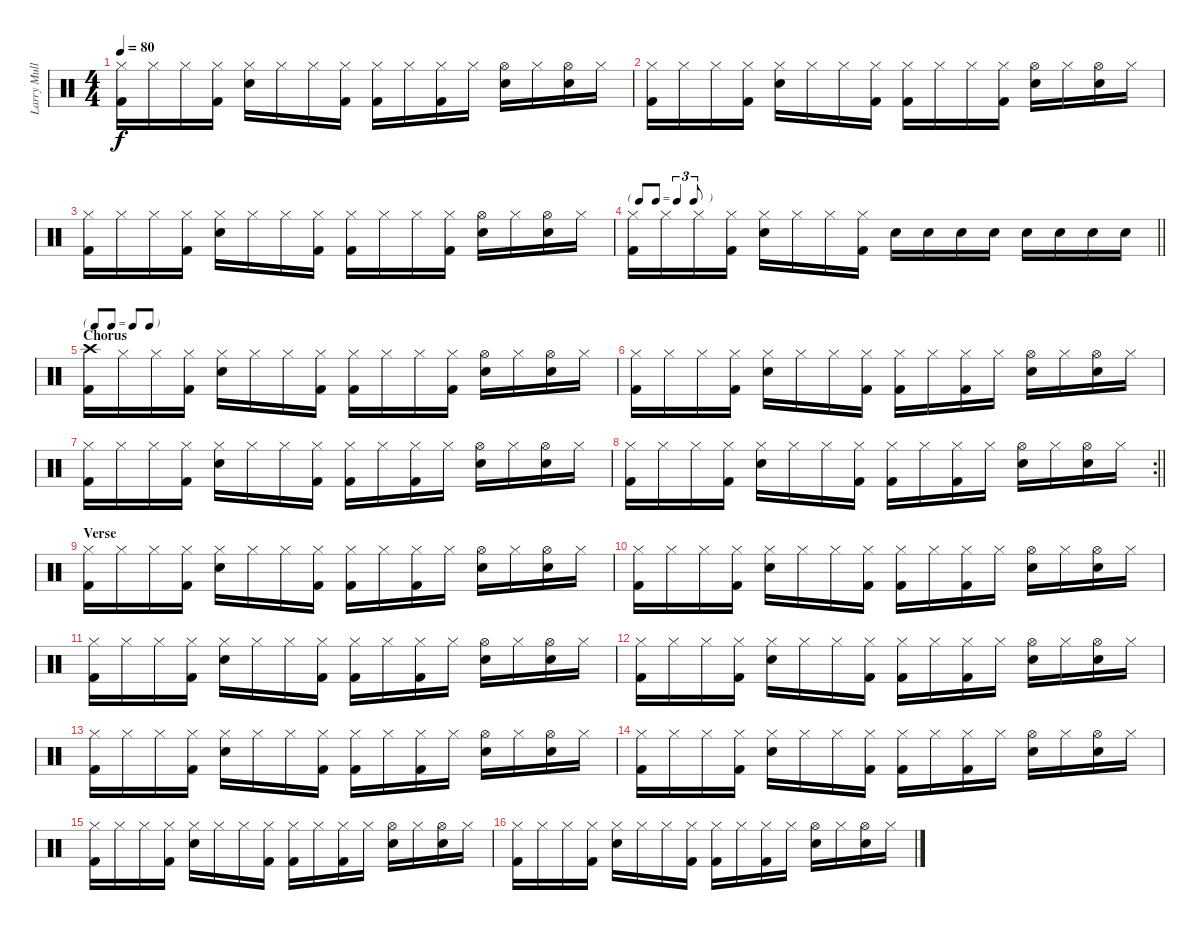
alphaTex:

\track ("Larry Mullen Jr" "Larry Mull") {instrument percussion}
\staff {score}
\articulation defaults
\ts (4 4)
\tempo 80
\clef neutral
\ks c
("Hi-Hat (closed)" "Kick (hit) 2").16{dy f} "Hi-Hat (closed)".16 "Hi-Hat (closed)".16 ("Hi-Hat (closed)" "Kick (hit) 2").16 ("Hi-Hat (closed)" "Snare (hit) 2").16 "Hi-Hat (closed)".16 "Hi-Hat (closed)".16 ("Hi-Hat (closed)" "Kick (hit) 2").16 ("Hi-Hat (closed)" "Kick (hit) 2").16 "Hi-Hat (closed)".16 ("Hi-Hat (closed)" "Kick (hit) 2").16 "Hi-Hat (closed)".16 ("Hi-Hat (open)" "Snare (hit) 2").16 "Hi-Hat (closed)".16 ("Hi-Hat (open)" "Snare (hit) 2").16 "Hi-Hat (closed)".16 |
("Hi-Hat (closed)" "Kick (hit) 2").16 "Hi-Hat (closed)".16 "Hi-Hat (closed)".16 ("Hi-Hat (closed)" "Kick (hit) 2").16 ("Hi-Hat (closed)" "Snare (hit) 2").16 "Hi-Hat (closed)".16 "Hi-Hat (closed)".16 ("Hi-Hat (closed)" "Kick (hit) 2").16 ("Hi-Hat (closed)" "Kick (hit) 2").16 "Hi-Hat (closed)".16 "Hi-Hat (closed)".16 ("Hi-Hat (closed)" "Kick (hit) 2").16 ("Hi-Hat (open)" "Snare (hit) 2").16 "Hi-Hat (closed)".16 ("Hi-Hat (open)" "Snare (hit) 2").16 "Hi-Hat (closed)".16 |
("Hi-Hat (closed)" "Kick (hit) 2").16 "Hi-Hat (closed)".16 "Hi-Hat (closed)".16 ("Hi-Hat (closed)" "Kick (hit) 2").16 ("Hi-Hat (closed)" "Snare (hit) 2").16 "Hi-Hat (closed)".16 "Hi-Hat (closed)".16 ("Hi-Hat (closed)" "Kick (hit) 2").16 ("Hi-Hat (closed)" "Kick (hit) 2").16 "Hi-Hat (closed)".16 "Hi-Hat (closed)".16 ("Hi-Hat (closed)" "Kick (hit) 2").16 ("Hi-Hat (open)" "Snare (hit) 2").16 "Hi-Hat (closed)".16 ("Hi-Hat (open)" "Snare (hit) 2").16 "Hi-Hat (closed)".16 |
\tf triplet8th
\barLineRight lightlight
("Hi-Hat (closed)" "Kick (hit) 2").16 "Hi-Hat (closed)".16 "Hi-Hat (closed)".16 ("Hi-Hat (closed)" "Kick (hit) 2").16 ("Hi-Hat (closed)" "Snare (hit) 2").16 "Hi-Hat (closed)".16 "Hi-Hat (closed)".16 ("Hi-Hat (closed)" "Kick (hit) 2").16 "Snare (hit) 2".16 "Snare (hit) 2".16 "Snare (hit) 2".16 "Snare (hit) 2".16 "Snare (hit) 2".16 "Snare (hit) 2".16 "Snare (hit) 2".16 "Snare (hit) 2".16 |
\tf none
\section ("" "Chorus")
("Crash high (hit)" "Kick (hit) 2").16 "Hi-Hat (closed)".16 "Hi-Hat (closed)".16 ("Hi-Hat (closed)" "Kick (hit) 2").16 ("Hi-Hat (closed)" "Snare (hit) 2").16 "Hi-Hat (closed)".16 "Hi-Hat (closed)".16 ("Hi-Hat (closed)" "Kick (hit) 2").16 ("Hi-Hat (closed)" "Kick (hit) 2").16 "Hi-Hat (closed)".16 "Hi-Hat (closed)".16 ("Hi-Hat (closed)" "Kick (hit) 2").16 ("Hi-Hat (open)" "Snare (hit) 2").16 "Hi-Hat (closed)".16 ("Hi-Hat (open)" "Snare (hit) 2").16 "Hi-Hat (closed)".16 |
("Hi-Hat (closed)" "Kick (hit) 2").16 "Hi-Hat (closed)".16 "Hi-Hat (closed)".16 ("Hi-Hat (closed)" "Kick (hit) 2").16 ("Hi-Hat (closed)" "Snare (hit) 2").16 "Hi-Hat (closed)".16 "Hi-Hat (closed)".16 ("Hi-Hat (closed)" "Kick (hit) 2").16 ("Hi-Hat (closed)" "Kick (hit) 2").16 "Hi-Hat (closed)".16 ("Hi-Hat (closed)" "Kick (hit) 2").16 "Hi-Hat (closed)".16 ("Hi-Hat (open)" "Snare (hit) 2").16 "Hi-Hat (closed)".16 ("Hi-Hat (open)" "Snare (hit) 2").16 "Hi-Hat (closed)".16 |
("Hi-Hat (closed)" "Kick (hit) 2").16 "Hi-Hat (closed)".16 "Hi-Hat (closed)".16 ("Hi-Hat (closed)" "Kick (hit) 2").16 ("Hi-Hat (closed)" "Snare (hit) 2").16 "Hi-Hat (closed)".16 "Hi-Hat (closed)".16 ("Hi-Hat (closed)" "Kick (hit) 2").16 ("Hi-Hat (closed)" "Kick (hit) 2").16 "Hi-Hat (closed)".16 ("Hi-Hat (closed)" "Kick (hit) 2").16 "Hi-Hat (closed)".16 ("Hi-Hat (open)" "Snare (hit) 2").16 "Hi-Hat (closed)".16 ("Hi-Hat (open)" "Snare (hit) 2").16 "Hi-Hat (closed)".16 |
\rc 2
\barLineRight lightlight
("Hi-Hat (closed)" "Kick (hit) 2").16 "Hi-Hat (closed)".16 "Hi-Hat (closed)".16 ("Hi-Hat (closed)" "Kick (hit) 2").16 ("Hi-Hat (closed)" "Snare (hit) 2").16 "Hi-Hat (closed)".16 "Hi-Hat (closed)".16 ("Hi-Hat (closed)" "Kick (hit) 2").16 ("Hi-Hat (closed)" "Kick (hit) 2").16 "Hi-Hat (closed)".16 ("Hi-Hat (closed)" "Kick (hit) 2").16 "Hi-Hat (closed)".16 ("Hi-Hat (open)" "Snare (hit) 2").16 "Hi-Hat (closed)".16 ("Hi-Hat (open)" "Snare (hit) 2").16 "Hi-Hat (closed)".16 |
\section ("" "Verse")
("Hi-Hat (closed)" "Kick (hit) 2").16 "Hi-Hat (closed)".16 "Hi-Hat (closed)".16 ("Hi-Hat (closed)" "Kick (hit) 2").16 ("Hi-Hat (closed)" "Snare (hit) 2").16 "Hi-Hat (closed)".16 "Hi-Hat (closed)".16 ("Hi-Hat (closed)" "Kick (hit) 2").16 ("Hi-Hat (closed)" "Kick (hit) 2").16 "Hi-Hat (closed)".16 ("Hi-Hat (closed)" "Kick (hit) 2").16 "Hi-Hat (closed)".16 ("Hi-Hat (open)" "Snare (hit) 2").16 "Hi-Hat (closed)".16 ("Hi-Hat (open)" "Snare (hit) 2").16 "Hi-Hat (closed)".16 |
("Hi-Hat (closed)" "Kick (hit) 2").16 "Hi-Hat (closed)".16 "Hi-Hat (closed)".16 ("Hi-Hat (closed)" "Kick (hit) 2").16 ("Hi-Hat (closed)" "Snare (hit) 2").16 "Hi-Hat (closed)".16 "Hi-Hat (closed)".16 ("Hi-Hat (closed)" "Kick (hit) 2").16 ("Hi-Hat (closed)" "Kick (hit) 2").16 "Hi-Hat (closed)".16 ("Hi-Hat (closed)" "Kick (hit) 2").16 "Hi-Hat (closed)".16 ("Hi-Hat (open)" "Snare (hit) 2").16 "Hi-Hat (closed)".16 ("Hi-Hat (open)" "Snare (hit) 2").16 "Hi-Hat (closed)".16 |
("Hi-Hat (closed)" "Kick (hit) 2").16 "Hi-Hat (closed)".16 "Hi-Hat (closed)".16 ("Hi-Hat (closed)" "Kick (hit) 2").16 ("Hi-Hat (closed)" "Snare (hit) 2").16 "Hi-Hat (closed)".16 "Hi-Hat (closed)".16 ("Hi-Hat (closed)" "Kick (hit) 2").16 ("Hi-Hat (closed)" "Kick (hit) 2").16 "Hi-Hat (closed)".16 ("Hi-Hat (closed)" "Kick (hit) 2").16 "Hi-Hat (closed)".16 ("Hi-Hat (open)" "Snare (hit) 2").16 "Hi-Hat (closed)".16 ("Hi-Hat (open)" "Snare (hit) 2").16 "Hi-Hat (closed)".16 |
("Hi-Hat (closed)" "Kick (hit) 2").16 "Hi-Hat (closed)".16 "Hi-Hat (closed)".16 ("Hi-Hat (closed)" "Kick (hit) 2").16 ("Hi-Hat (closed)" "Snare (hit) 2").16 "Hi-Hat (closed)".16 "Hi-Hat (closed)".16 ("Hi-Hat (closed)" "Kick (hit) 2").16 ("Hi-Hat (closed)" "Kick (hit) 2").16 "Hi-Hat (closed)".16 ("Hi-Hat (closed)" "Kick (hit) 2").16 "Hi-Hat (closed)".16 ("Hi-Hat (open)" "Snare (hit) 2").16 "Hi-Hat (closed)".16 ("Hi-Hat (open)" "Snare (hit) 2").16 "Hi-Hat (closed)".16 |
("Hi-Hat (closed)" "Kick (hit) 2").16 "Hi-Hat (closed)".16 "Hi-Hat (closed)".16 ("Hi-Hat (closed)" "Kick (hit) 2").16 ("Hi-Hat (closed)" "Snare (hit) 2").16 "Hi-Hat (closed)".16 "Hi-Hat (closed)".16 ("Hi-Hat (closed)" "Kick (hit) 2").16 ("Hi-Hat (closed)" "Kick (hit) 2").16 "Hi-Hat (closed)".16 ("Hi-Hat (closed)" "Kick (hit) 2").16 "Hi-Hat (closed)".16 ("Hi-Hat (open)" "Snare (hit) 2").16 "Hi-Hat (closed)".16 ("Hi-Hat (open)" "Snare (hit) 2").16 "Hi-Hat (closed)".16 |
("Hi-Hat (closed)" "Kick (hit) 2").16 "Hi-Hat (closed)".16 "Hi-Hat (closed)".16 ("Hi-Hat (closed)" "Kick (hit) 2").16 ("Hi-Hat (closed)" "Snare (hit) 2").16 "Hi-Hat (closed)".16 "Hi-Hat (closed)".16 ("Hi-Hat (closed)" "Kick (hit) 2").16 ("Hi-Hat (closed)" "Kick (hit) 2").16 "Hi-Hat (closed)".16 ("Hi-Hat (closed)" "Kick (hit) 2").16 "Hi-Hat (closed)".16 ("Hi-Hat (open)" "Snare (hit) 2").16 "Hi-Hat (closed)".16 ("Hi-Hat (open)" "Snare (hit) 2").16 "Hi-Hat (closed)".16 |
("Hi-Hat (closed)" "Kick (hit) 2").16 "Hi-Hat (closed)".16 "Hi-Hat (closed)".16 ("Hi-Hat (closed)" "Kick (hit) 2").16 ("Hi-Hat (closed)" "Snare (hit) 2").16 "Hi-Hat (closed)".16 "Hi-Hat (closed)".16 ("Hi-Hat (closed)" "Kick (hit) 2").16 ("Hi-Hat (closed)" "Kick (hit) 2").16 "Hi-Hat (closed)".16 ("Hi-Hat (closed)" "Kick (hit) 2").16 "Hi-Hat (closed)".16 ("Hi-Hat (open)" "Snare (hit) 2").16 "Hi-Hat (closed)".16 ("Hi-Hat (open)" "Snare (hit) 2").16 "Hi-Hat (closed)".16 |
("Hi-Hat (closed)" "Kick (hit) 2").16 "Hi-Hat (closed)".16 "Hi-Hat (closed)".16 ("Hi-Hat (closed)" "Kick (hit) 2").16 ("Hi-Hat (closed)" "Snare (hit) 2").16 "Hi-Hat (closed)".16 "Hi-Hat (closed)".16 ("Hi-Hat (closed)" "Kick (hit) 2").16 ("Hi-Hat (closed)" "Kick (hit) 2").16 "Hi-Hat (closed)".16 ("Hi-Hat (closed)" "Kick (hit) 2").16 "Hi-Hat (closed)".16 ("Hi-Hat (open)" "Snare (hit) 2").16 "Hi-Hat (closed)".16 ("Hi-Hat (open)" "Snare (hit) 2").16 "Hi-Hat (closed)".16
